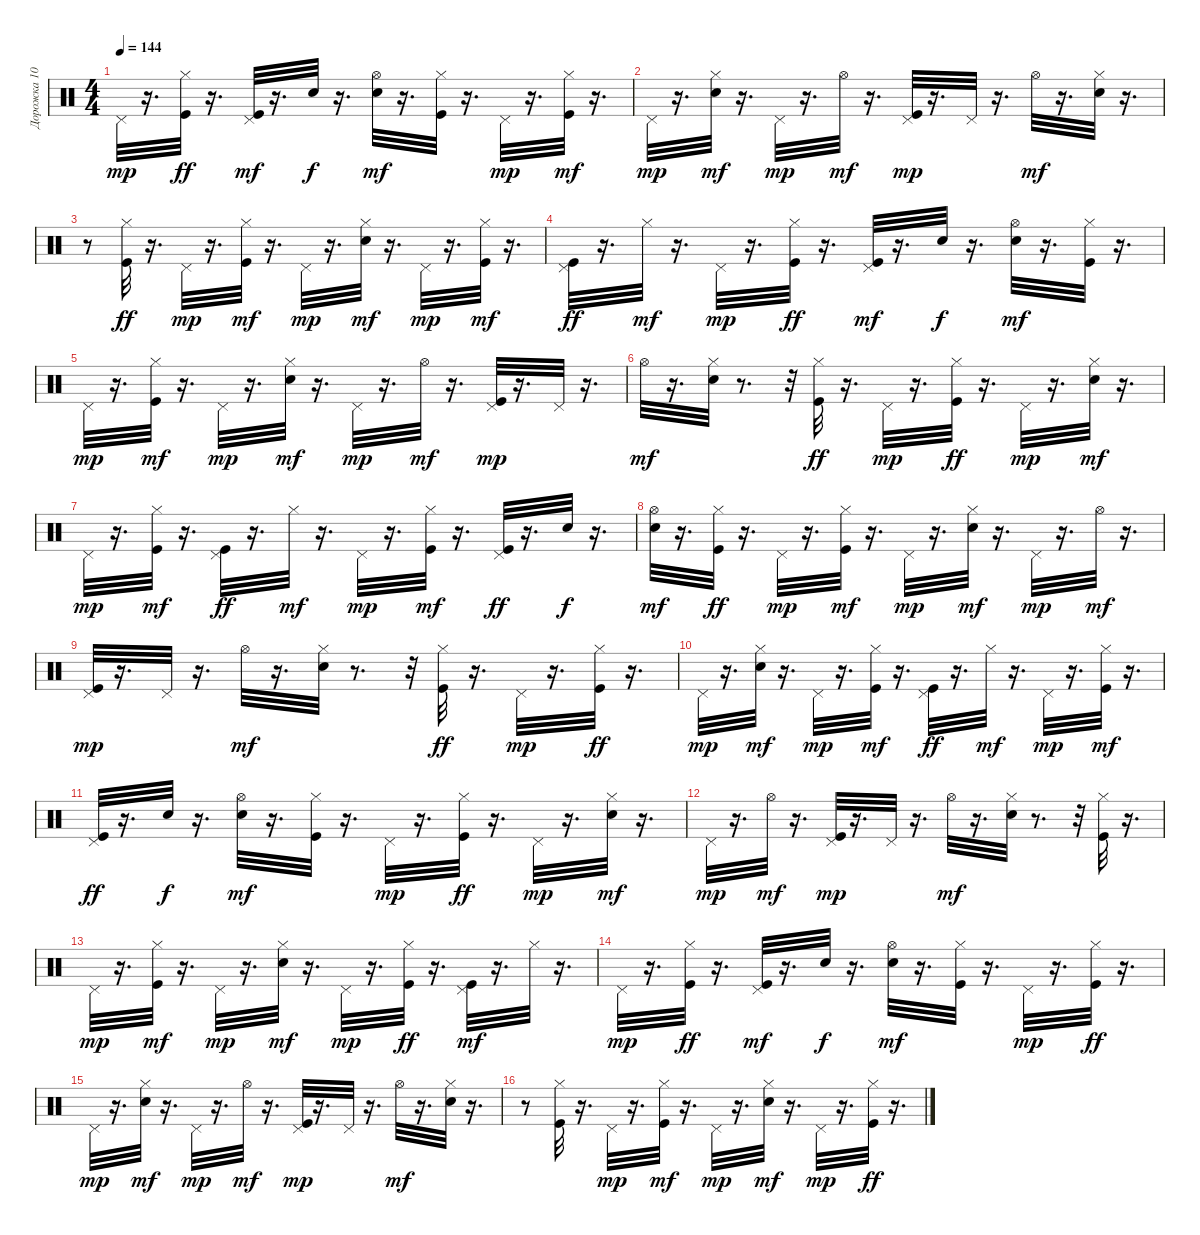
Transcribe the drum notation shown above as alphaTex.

\track ("Дорожка 10" "Дорожка 10") {instrument percussion}
\staff {score}
\articulation defaults
\ts (4 4)
\tempo 144
\clef neutral
\ks c "Pedal Hi-Hat (hit)".32{dy mp}
r.16{d} ("Hi-Hat (closed)" "Kick (hit)").32{dy ff} r.16{d} ("Kick (hit)" "Pedal Hi-Hat (hit)").32{dy mf} r.16{d} "Electric Snare (hit)".32{dy f} r.16{d} ("Electric Snare (hit)" "Hi-Hat (open)").32{dy mf} r.16{d} ("Kick (hit)" "Hi-Hat (closed)").32 r.16{d} "Pedal Hi-Hat (hit)".32{dy mp} r.16{d} ("Kick (hit)" "Hi-Hat (closed)").32{dy mf} r.16{d} |
"Pedal Hi-Hat (hit)".32{dy mp} r.16{d} ("Electric Snare (hit)" "Hi-Hat (closed)").32{dy mf} r.16{d} "Pedal Hi-Hat (hit)".32{dy mp} r.16{d} "Hi-Hat (open)".32{dy mf} r.16{d} ("Kick (hit)" "Pedal Hi-Hat (hit)").32{dy mp} r.16{d} "Pedal Hi-Hat (hit)".32 r.16{d} "Hi-Hat (open)".32{dy mf} r.16{d} ("Hi-Hat (closed)" "Electric Snare (hit)").32 r.16{d} |
r.8 ("Hi-Hat (closed)" "Kick (hit)").32{dy ff} r.16{d} "Pedal Hi-Hat (hit)".32{dy mp} r.16{d} ("Kick (hit)" "Hi-Hat (closed)").32{dy mf} r.16{d} "Pedal Hi-Hat (hit)".32{dy mp} r.16{d} ("Hi-Hat (closed)" "Electric Snare (hit)").32{dy mf} r.16{d} "Pedal Hi-Hat (hit)".32{dy mp} r.16{d} ("Kick (hit)" "Hi-Hat (closed)").32{dy mf} r.16{d} |
("Pedal Hi-Hat (hit)" "Kick (hit)").32{dy ff} r.16{d} "Hi-Hat (closed)".32{dy mf} r.16{d} "Pedal Hi-Hat (hit)".32{dy mp} r.16{d} ("Hi-Hat (closed)" "Kick (hit)").32{dy ff} r.16{d} ("Kick (hit)" "Pedal Hi-Hat (hit)").32{dy mf} r.16{d} "Electric Snare (hit)".32{dy f} r.16{d} ("Hi-Hat (open)" "Electric Snare (hit)").32{dy mf} r.16{d} ("Kick (hit)" "Hi-Hat (closed)").32 r.16{d} |
"Pedal Hi-Hat (hit)".32{dy mp} r.16{d} ("Kick (hit)" "Hi-Hat (closed)").32{dy mf} r.16{d} "Pedal Hi-Hat (hit)".32{dy mp} r.16{d} ("Electric Snare (hit)" "Hi-Hat (closed)").32{dy mf} r.16{d} "Pedal Hi-Hat (hit)".32{dy mp} r.16{d} "Hi-Hat (open)".32{dy mf} r.16{d} ("Pedal Hi-Hat (hit)" "Kick (hit)").32{dy mp} r.16{d} "Pedal Hi-Hat (hit)".32 r.16{d} |
"Hi-Hat (open)".32{dy mf} r.16{d} ("Hi-Hat (closed)" "Electric Snare (hit)").32 r.8{d} r.32 ("Hi-Hat (closed)" "Kick (hit)").32{dy ff} r.16{d} "Pedal Hi-Hat (hit)".32{dy mp} r.16{d} ("Hi-Hat (closed)" "Kick (hit)").32{dy ff} r.16{d} "Pedal Hi-Hat (hit)".32{dy mp} r.16{d} ("Hi-Hat (closed)" "Electric Snare (hit)").32{dy mf} r.16{d} |
"Pedal Hi-Hat (hit)".32{dy mp} r.16{d} ("Kick (hit)" "Hi-Hat (closed)").32{dy mf} r.16{d} ("Pedal Hi-Hat (hit)" "Kick (hit)").32{dy ff} r.16{d} "Hi-Hat (closed)".32{dy mf} r.16{d} "Pedal Hi-Hat (hit)".32{dy mp} r.16{d} ("Kick (hit)" "Hi-Hat (closed)").32{dy mf} r.16{d} ("Pedal Hi-Hat (hit)" "Kick (hit)").32{dy ff} r.16{d} "Electric Snare (hit)".32{dy f} r.16{d} |
("Electric Snare (hit)" "Hi-Hat (open)").32{dy mf} r.16{d} ("Hi-Hat (closed)" "Kick (hit)").32{dy ff} r.16{d} "Pedal Hi-Hat (hit)".32{dy mp} r.16{d} ("Kick (hit)" "Hi-Hat (closed)").32{dy mf} r.16{d} "Pedal Hi-Hat (hit)".32{dy mp} r.16{d} ("Electric Snare (hit)" "Hi-Hat (closed)").32{dy mf} r.16{d} "Pedal Hi-Hat (hit)".32{dy mp} r.16{d} "Hi-Hat (open)".32{dy mf} r.16{d} |
("Kick (hit)" "Pedal Hi-Hat (hit)").32{dy mp} r.16{d} "Pedal Hi-Hat (hit)".32 r.16{d} "Hi-Hat (open)".32{dy mf} r.16{d} ("Hi-Hat (closed)" "Electric Snare (hit)").32 r.8{d} r.32 ("Hi-Hat (closed)" "Kick (hit)").32{dy ff} r.16{d} "Pedal Hi-Hat (hit)".32{dy mp} r.16{d} ("Hi-Hat (closed)" "Kick (hit)").32{dy ff} r.16{d} |
"Pedal Hi-Hat (hit)".32{dy mp} r.16{d} ("Hi-Hat (closed)" "Electric Snare (hit)").32{dy mf} r.16{d} "Pedal Hi-Hat (hit)".32{dy mp} r.16{d} ("Kick (hit)" "Hi-Hat (closed)").32{dy mf} r.16{d} ("Pedal Hi-Hat (hit)" "Kick (hit)").32{dy ff} r.16{d} "Hi-Hat (closed)".32{dy mf} r.16{d} "Pedal Hi-Hat (hit)".32{dy mp} r.16{d} ("Kick (hit)" "Hi-Hat (closed)").32{dy mf} r.16{d} |
("Pedal Hi-Hat (hit)" "Kick (hit)").32{dy ff} r.16{d} "Electric Snare (hit)".32{dy f} r.16{d} ("Electric Snare (hit)" "Hi-Hat (open)").32{dy mf} r.16{d} ("Kick (hit)" "Hi-Hat (closed)").32 r.16{d} "Pedal Hi-Hat (hit)".32{dy mp} r.16{d} ("Hi-Hat (closed)" "Kick (hit)").32{dy ff} r.16{d} "Pedal Hi-Hat (hit)".32{dy mp} r.16{d} ("Electric Snare (hit)" "Hi-Hat (closed)").32{dy mf} r.16{d} |
"Pedal Hi-Hat (hit)".32{dy mp} r.16{d} "Hi-Hat (open)".32{dy mf} r.16{d} ("Pedal Hi-Hat (hit)" "Kick (hit)").32{dy mp} r.16{d} "Pedal Hi-Hat (hit)".32 r.16{d} "Hi-Hat (open)".32{dy mf} r.16{d} ("Electric Snare (hit)" "Hi-Hat (closed)").32 r.8{d} r.32 ("Kick (hit)" "Hi-Hat (closed)").32 r.16{d} |
"Pedal Hi-Hat (hit)".32{dy mp} r.16{d} ("Kick (hit)" "Hi-Hat (closed)").32{dy mf} r.16{d} "Pedal Hi-Hat (hit)".32{dy mp} r.16{d} ("Hi-Hat (closed)" "Electric Snare (hit)").32{dy mf} r.16{d} "Pedal Hi-Hat (hit)".32{dy mp} r.16{d} ("Hi-Hat (closed)" "Kick (hit)").32{dy ff} r.16{d} ("Kick (hit)" "Pedal Hi-Hat (hit)").32{dy mf} r.16{d} "Hi-Hat (closed)".32 r.16{d} |
"Pedal Hi-Hat (hit)".32{dy mp} r.16{d} ("Hi-Hat (closed)" "Kick (hit)").32{dy ff} r.16{d} ("Kick (hit)" "Pedal Hi-Hat (hit)").32{dy mf} r.16{d} "Electric Snare (hit)".32{dy f} r.16{d} ("Hi-Hat (open)" "Electric Snare (hit)").32{dy mf} r.16{d} ("Kick (hit)" "Hi-Hat (closed)").32 r.16{d} "Pedal Hi-Hat (hit)".32{dy mp} r.16{d} ("Hi-Hat (closed)" "Kick (hit)").32{dy ff} r.16{d} |
"Pedal Hi-Hat (hit)".32{dy mp} r.16{d} ("Hi-Hat (closed)" "Electric Snare (hit)").32{dy mf} r.16{d} "Pedal Hi-Hat (hit)".32{dy mp} r.16{d} "Hi-Hat (open)".32{dy mf} r.16{d} ("Pedal Hi-Hat (hit)" "Kick (hit)").32{dy mp} r.16{d} "Pedal Hi-Hat (hit)".32 r.16{d} "Hi-Hat (open)".32{dy mf} r.16{d} ("Hi-Hat (closed)" "Electric Snare (hit)").32 r.16{d} |
r.8 ("Kick (hit)" "Hi-Hat (closed)").32 r.16{d} "Pedal Hi-Hat (hit)".32{dy mp} r.16{d} ("Kick (hit)" "Hi-Hat (closed)").32{dy mf} r.16{d} "Pedal Hi-Hat (hit)".32{dy mp} r.16{d} ("Electric Snare (hit)" "Hi-Hat (closed)").32{dy mf} r.16{d} "Pedal Hi-Hat (hit)".32{dy mp} r.16{d} ("Hi-Hat (closed)" "Kick (hit)").32{dy ff} r.16{d}
